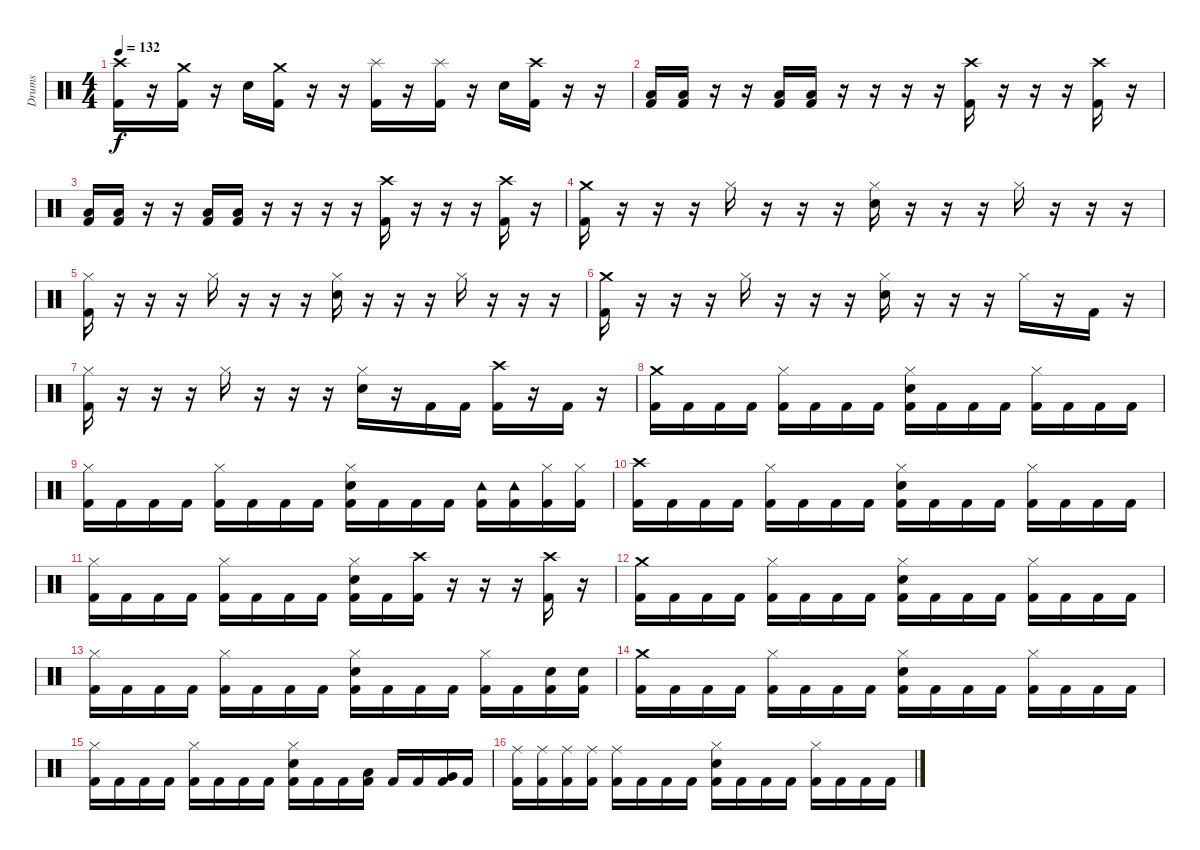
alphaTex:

\track ("Drums" "Drums") {instrument percussion}
\staff {score}
\articulation defaults
\ts (4 4)
\tempo 132
\clef neutral
\ks c
("Crash high (hit)" "Kick (hit) 2").16{dy f} r.16 ("Crash medium (hit)" "Kick (hit) 2").16 r.16 "Electric Snare (hit)".16 ("Crash medium (hit)" "Kick (hit) 2").16 r.16 r.16 ("Splash (hit)" "Kick (hit) 2").16 r.16 ("Splash (hit)" "Kick (hit) 2").16 r.16 "Electric Snare (hit)".16 ("Crash high (hit)" "Kick (hit) 2").16 r.16 r.16 |
("Low Floor Tom (hit)" "Kick (hit) 2").16 ("Low Floor Tom (hit)" "Kick (hit) 2").16 r.16 r.16 ("Low Floor Tom (hit)" "Kick (hit) 2").16 ("Low Floor Tom (hit)" "Kick (hit) 2").16 r.16 r.16 r.16 r.16 ("Crash high (hit)" "Kick (hit) 2").16 r.16 r.16 r.16 ("Crash high (hit)" "Kick (hit) 2").16 r.16 |
("Low Floor Tom (hit)" "Kick (hit) 2").16 ("Low Floor Tom (hit)" "Kick (hit) 2").16 r.16 r.16 ("Low Floor Tom (hit)" "Kick (hit) 2").16 ("Low Floor Tom (hit)" "Kick (hit) 2").16 r.16 r.16 r.16 r.16 ("Crash high (hit)" "Kick (hit) 2").16 r.16 r.16 r.16 ("Crash high (hit)" "Kick (hit) 2").16 r.16 |
("Crash medium (hit)" "Kick (hit) 2").16 r.16 r.16 r.16 "Hi-Hat (closed)".16 r.16 r.16 r.16 ("Hi-Hat (closed)" "Electric Snare (hit)").16 r.16 r.16 r.16 "Hi-Hat (closed)".16 r.16 r.16 r.16 |
("Hi-Hat (closed)" "Kick (hit) 2").16 r.16 r.16 r.16 "Hi-Hat (closed)".16 r.16 r.16 r.16 ("Hi-Hat (closed)" "Electric Snare (hit)").16 r.16 r.16 r.16 "Hi-Hat (closed)".16 r.16 r.16 r.16 |
("Crash medium (hit)" "Kick (hit) 2").16 r.16 r.16 r.16 "Hi-Hat (closed)".16 r.16 r.16 r.16 ("Hi-Hat (closed)" "Electric Snare (hit)").16 r.16 r.16 r.16 "Hi-Hat (closed)".16 r.16 "Kick (hit) 2".16 r.16 |
("Hi-Hat (closed)" "Kick (hit) 2").16 r.16 r.16 r.16 "Hi-Hat (closed)".16 r.16 r.16 r.16 ("Hi-Hat (closed)" "Electric Snare (hit)").16 r.16 "Kick (hit) 2".16 "Kick (hit) 2".16 ("Crash high (hit)" "Kick (hit) 2").16 r.16 "Kick (hit) 2".16 r.16 |
("Crash medium (hit)" "Kick (hit) 2").16 "Kick (hit) 2".16 "Kick (hit) 2".16 "Kick (hit) 2".16 ("Hi-Hat (closed)" "Kick (hit) 2").16 "Kick (hit) 2".16 "Kick (hit) 2".16 "Kick (hit) 2".16 ("Hi-Hat (closed)" "Electric Snare (hit)" "Kick (hit) 2").16 "Kick (hit) 2".16 "Kick (hit) 2".16 "Kick (hit) 2".16 ("Hi-Hat (closed)" "Kick (hit) 2").16 "Kick (hit) 2".16 "Kick (hit) 2".16 "Kick (hit) 2".16 |
("Hi-Hat (closed)" "Kick (hit) 2").16 "Kick (hit) 2".16 "Kick (hit) 2".16 "Kick (hit) 2".16 ("Hi-Hat (closed)" "Kick (hit) 2").16 "Kick (hit) 2".16 "Kick (hit) 2".16 "Kick (hit) 2".16 ("Hi-Hat (closed)" "Electric Snare (hit)" "Kick (hit) 2").16 "Kick (hit) 2".16 "Kick (hit) 2".16 "Kick (hit) 2".16 ("Tambourine (hit)" "Kick (hit) 2").16 ("Tambourine (hit)" "Kick (hit) 2").16 ("Hi-Hat (closed)" "Kick (hit) 2").16 ("Hi-Hat (closed)" "Kick (hit) 2").16 |
("Crash high (hit)" "Kick (hit) 2").16 "Kick (hit) 2".16 "Kick (hit) 2".16 "Kick (hit) 2".16 ("Hi-Hat (closed)" "Kick (hit) 2").16 "Kick (hit) 2".16 "Kick (hit) 2".16 "Kick (hit) 2".16 ("Hi-Hat (closed)" "Electric Snare (hit)" "Kick (hit) 2").16 "Kick (hit) 2".16 "Kick (hit) 2".16 "Kick (hit) 2".16 ("Hi-Hat (closed)" "Kick (hit) 2").16 "Kick (hit) 2".16 "Kick (hit) 2".16 "Kick (hit) 2".16 |
("Hi-Hat (closed)" "Kick (hit) 2").16 "Kick (hit) 2".16 "Kick (hit) 2".16 "Kick (hit) 2".16 ("Hi-Hat (closed)" "Kick (hit) 2").16 "Kick (hit) 2".16 "Kick (hit) 2".16 "Kick (hit) 2".16 ("Hi-Hat (closed)" "Electric Snare (hit)" "Kick (hit) 2").16 "Kick (hit) 2".16 ("Crash high (hit)" "Kick (hit) 2").16 r.16 r.16 r.16 ("Crash high (hit)" "Kick (hit) 2").16 r.16 |
("Crash medium (hit)" "Kick (hit) 2").16 "Kick (hit) 2".16 "Kick (hit) 2".16 "Kick (hit) 2".16 ("Hi-Hat (closed)" "Kick (hit) 2").16 "Kick (hit) 2".16 "Kick (hit) 2".16 "Kick (hit) 2".16 ("Hi-Hat (closed)" "Electric Snare (hit)" "Kick (hit) 2").16 "Kick (hit) 2".16 "Kick (hit) 2".16 "Kick (hit) 2".16 ("Hi-Hat (closed)" "Kick (hit) 2").16 "Kick (hit) 2".16 "Kick (hit) 2".16 "Kick (hit) 2".16 |
("Hi-Hat (closed)" "Kick (hit) 2").16 "Kick (hit) 2".16 "Kick (hit) 2".16 "Kick (hit) 2".16 ("Hi-Hat (closed)" "Kick (hit) 2").16 "Kick (hit) 2".16 "Kick (hit) 2".16 "Kick (hit) 2".16 ("Hi-Hat (closed)" "Electric Snare (hit)" "Kick (hit) 2").16 "Kick (hit) 2".16 "Kick (hit) 2".16 "Kick (hit) 2".16 ("Hi-Hat (closed)" "Kick (hit) 2").16 "Kick (hit) 2".16 ("Electric Snare (hit)" "Kick (hit) 2").16 ("Electric Snare (hit)" "Kick (hit) 2").16 |
("Crash medium (hit)" "Kick (hit) 2").16 "Kick (hit) 2".16 "Kick (hit) 2".16 "Kick (hit) 2".16 ("Hi-Hat (closed)" "Kick (hit) 2").16 "Kick (hit) 2".16 "Kick (hit) 2".16 "Kick (hit) 2".16 ("Hi-Hat (closed)" "Electric Snare (hit)" "Kick (hit) 2").16 "Kick (hit) 2".16 "Kick (hit) 2".16 "Kick (hit) 2".16 ("Hi-Hat (closed)" "Kick (hit) 2").16 "Kick (hit) 2".16 "Kick (hit) 2".16 "Kick (hit) 2".16 |
("Hi-Hat (closed)" "Kick (hit) 2").16 "Kick (hit) 2".16 "Kick (hit) 2".16 "Kick (hit) 2".16 ("Hi-Hat (closed)" "Kick (hit) 2").16 "Kick (hit) 2".16 "Kick (hit) 2".16 "Kick (hit) 2".16 ("Hi-Hat (closed)" "Electric Snare (hit)" "Kick (hit) 2").16 "Kick (hit) 2".16 "Kick (hit) 2".16 ("Low Tom (hit)" "Kick (hit) 2").16 "Kick (hit) 2".16 "Kick (hit) 2".16 ("Very Low Tom (hit)" "Kick (hit) 2").16 "Kick (hit) 2".16 |
("Ride (middle)" "Kick (hit) 2").16 ("Ride (middle)" "Kick (hit) 2").16 ("Ride (middle)" "Kick (hit) 2").16 ("Ride (middle)" "Kick (hit) 2").16 ("Ride (middle)" "Kick (hit) 2").16 "Kick (hit) 2".16 "Kick (hit) 2".16 "Kick (hit) 2".16 ("Hi-Hat (closed)" "Electric Snare (hit)" "Kick (hit) 2").16 "Kick (hit) 2".16 "Kick (hit) 2".16 "Kick (hit) 2".16 ("Hi-Hat (closed)" "Kick (hit) 2").16 "Kick (hit) 2".16 "Kick (hit) 2".16 "Kick (hit) 2".16
